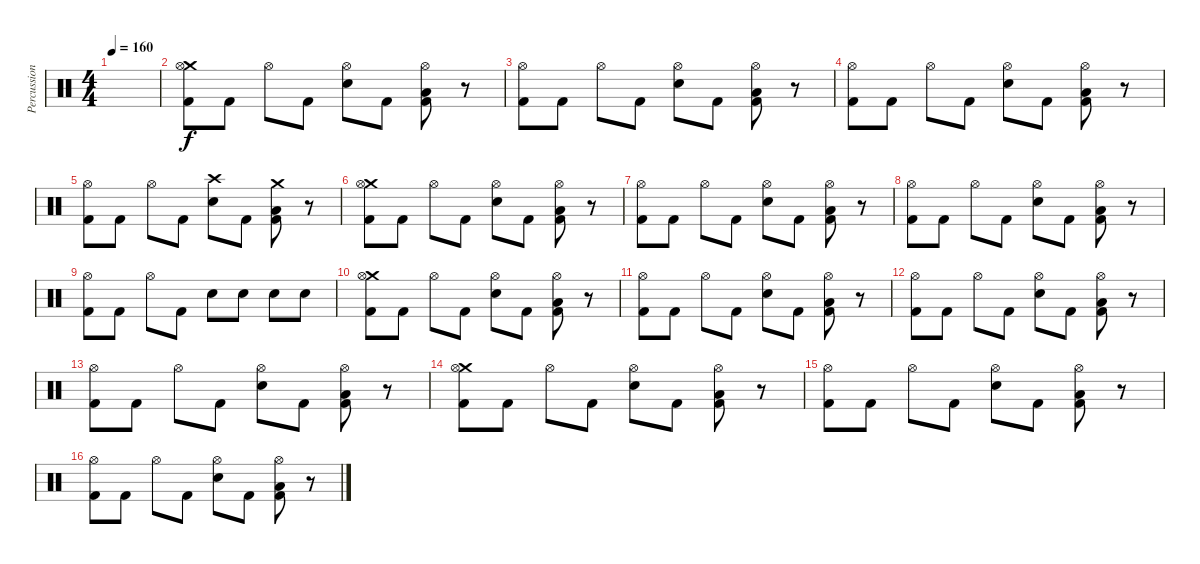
\track ("Percussioni" "Percussion") {instrument percussion}
\staff {score}
\articulation defaults
\ts (4 4)
\tempo 160
\clef neutral
\ks c
|
("Crash medium (hit)" "Hi-Hat (open)" "Kick (hit) 2").8 "Kick (hit) 2".8 "Hi-Hat (open)".8 "Kick (hit) 2".8 ("Hi-Hat (open)" "Snare (hit) 2").8 "Kick (hit) 2".8 ("Hi-Hat (open)" "Low Floor Tom (hit)" "Kick (hit) 2").8 r.8 |
("Hi-Hat (open)" "Kick (hit) 2").8 "Kick (hit) 2".8 "Hi-Hat (open)".8 "Kick (hit) 2".8 ("Hi-Hat (open)" "Snare (hit) 2").8 "Kick (hit) 2".8 ("Hi-Hat (open)" "Low Floor Tom (hit)" "Kick (hit) 2").8 r.8 |
("Hi-Hat (open)" "Kick (hit) 2").8 "Kick (hit) 2".8 "Hi-Hat (open)".8 "Kick (hit) 2".8 ("Hi-Hat (open)" "Snare (hit) 2").8 "Kick (hit) 2".8 ("Hi-Hat (open)" "Low Floor Tom (hit)" "Kick (hit) 2").8 r.8 |
("Hi-Hat (open)" "Kick (hit) 2").8 "Kick (hit) 2".8 "Hi-Hat (open)".8 "Kick (hit) 2".8 ("Crash high (hit)" "Snare (hit) 2").8 "Kick (hit) 2".8 ("Crash medium (hit)" "Low Floor Tom (hit)" "Kick (hit) 2").8 r.8 |
("Crash medium (hit)" "Hi-Hat (open)" "Kick (hit) 2").8 "Kick (hit) 2".8 "Hi-Hat (open)".8 "Kick (hit) 2".8 ("Hi-Hat (open)" "Snare (hit) 2").8 "Kick (hit) 2".8 ("Hi-Hat (open)" "Low Floor Tom (hit)" "Kick (hit) 2").8 r.8 |
("Hi-Hat (open)" "Kick (hit) 2").8 "Kick (hit) 2".8 "Hi-Hat (open)".8 "Kick (hit) 2".8 ("Hi-Hat (open)" "Snare (hit) 2").8 "Kick (hit) 2".8 ("Hi-Hat (open)" "Low Floor Tom (hit)" "Kick (hit) 2").8 r.8 |
("Hi-Hat (open)" "Kick (hit) 2").8 "Kick (hit) 2".8 "Hi-Hat (open)".8 "Kick (hit) 2".8 ("Hi-Hat (open)" "Snare (hit) 2").8 "Kick (hit) 2".8 ("Hi-Hat (open)" "Low Floor Tom (hit)" "Kick (hit) 2").8 r.8 |
("Hi-Hat (open)" "Kick (hit) 2").8 "Kick (hit) 2".8 "Hi-Hat (open)".8 "Kick (hit) 2".8 "Snare (hit) 2".8 "Snare (hit) 2".8 "Snare (hit) 2".8 "Snare (hit) 2".8 |
("Crash medium (hit)" "Hi-Hat (open)" "Kick (hit) 2").8 "Kick (hit) 2".8 "Hi-Hat (open)".8 "Kick (hit) 2".8 ("Hi-Hat (open)" "Snare (hit) 2").8 "Kick (hit) 2".8 ("Hi-Hat (open)" "Low Floor Tom (hit)" "Kick (hit) 2").8 r.8 |
("Hi-Hat (open)" "Kick (hit) 2").8 "Kick (hit) 2".8 "Hi-Hat (open)".8 "Kick (hit) 2".8 ("Hi-Hat (open)" "Snare (hit) 2").8 "Kick (hit) 2".8 ("Hi-Hat (open)" "Low Floor Tom (hit)" "Kick (hit) 2").8 r.8 |
("Hi-Hat (open)" "Kick (hit) 2").8 "Kick (hit) 2".8 "Hi-Hat (open)".8 "Kick (hit) 2".8 ("Hi-Hat (open)" "Snare (hit) 2").8 "Kick (hit) 2".8 ("Hi-Hat (open)" "Low Floor Tom (hit)" "Kick (hit) 2").8 r.8 |
("Hi-Hat (open)" "Kick (hit) 2").8 "Kick (hit) 2".8 "Hi-Hat (open)".8 "Kick (hit) 2".8 ("Hi-Hat (open)" "Snare (hit) 2").8 "Kick (hit) 2".8 ("Hi-Hat (open)" "Low Floor Tom (hit)" "Kick (hit) 2").8 r.8 |
("Crash medium (hit)" "Hi-Hat (open)" "Kick (hit) 2").8 "Kick (hit) 2".8 "Hi-Hat (open)".8 "Kick (hit) 2".8 ("Hi-Hat (open)" "Snare (hit) 2").8 "Kick (hit) 2".8 ("Hi-Hat (open)" "Low Floor Tom (hit)" "Kick (hit) 2").8 r.8 |
("Hi-Hat (open)" "Kick (hit) 2").8 "Kick (hit) 2".8 "Hi-Hat (open)".8 "Kick (hit) 2".8 ("Hi-Hat (open)" "Snare (hit) 2").8 "Kick (hit) 2".8 ("Hi-Hat (open)" "Low Floor Tom (hit)" "Kick (hit) 2").8 r.8 |
("Hi-Hat (open)" "Kick (hit) 2").8 "Kick (hit) 2".8 "Hi-Hat (open)".8 "Kick (hit) 2".8 ("Hi-Hat (open)" "Snare (hit) 2").8 "Kick (hit) 2".8 ("Hi-Hat (open)" "Low Floor Tom (hit)" "Kick (hit) 2").8 r.8
